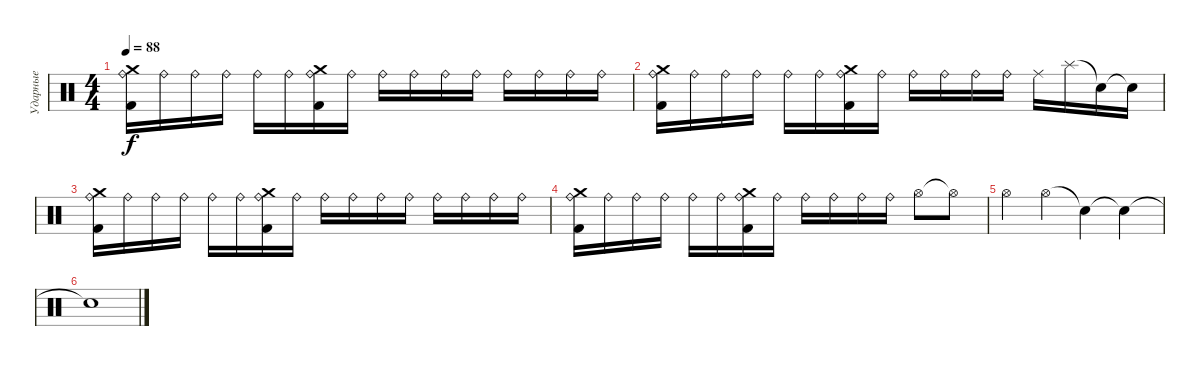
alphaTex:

\track ("Ударные" "Ударные") {instrument percussion}
\staff {score}
\articulation defaults
\ts (4 4)
\tempo 88
\clef neutral
\ks c
("Crash medium (hit)" "Ride (bell)" "Kick (hit) 2").16{dy f} "Ride (bell)".16 "Ride (bell)".16 "Ride (bell)".16 "Ride (bell)".16 "Ride (bell)".16 ("Crash medium (hit)" "Ride (bell)" "Kick (hit) 2").16 "Ride (bell)".16 "Ride (bell)".16 "Ride (bell)".16 "Ride (bell)".16 "Ride (bell)".16 "Ride (bell)".16 "Ride (bell)".16 "Ride (bell)".16 "Ride (bell)".16 |
("Crash medium (hit)" "Ride (bell)" "Kick (hit) 2").16 "Ride (bell)".16 "Ride (bell)".16 "Ride (bell)".16 "Ride (bell)".16 "Ride (bell)".16 ("Crash medium (hit)" "Ride (bell)" "Kick (hit) 2").16 "Ride (bell)".16 "Ride (bell)".16 "Ride (bell)".16 "Ride (bell)".16 "Ride (bell)".16 "Ride (middle)".16 "Splash (hit)".16 "Snare (hit)"{t}.16 "Snare (hit)"{t}.16 |
("Crash medium (hit)" "Ride (bell)" "Kick (hit) 2").16 "Ride (bell)".16 "Ride (bell)".16 "Ride (bell)".16 "Ride (bell)".16 "Ride (bell)".16 ("Crash medium (hit)" "Ride (bell)" "Kick (hit) 2").16 "Ride (bell)".16 "Ride (bell)".16 "Ride (bell)".16 "Ride (bell)".16 "Ride (bell)".16 "Ride (bell)".16 "Ride (bell)".16 "Ride (bell)".16 "Ride (bell)".16 |
("Crash medium (hit)" "Ride (bell)" "Kick (hit) 2").16 "Ride (bell)".16 "Ride (bell)".16 "Ride (bell)".16 "Ride (bell)".16 "Ride (bell)".16 ("Crash medium (hit)" "Ride (bell)" "Kick (hit) 2").16 "Ride (bell)".16 "Ride (bell)".16 "Ride (bell)".16 "Ride (bell)".16 "Ride (bell)".16 "Hi-Hat (open)".8 "Hi-Hat (open)"{t}.8 |
"Hi-Hat (open)".4 "Hi-Hat (open)".4 "Snare (hit)"{t}.4 "Snare (hit)"{t}.4 |
"Snare (hit)"{t}.1
